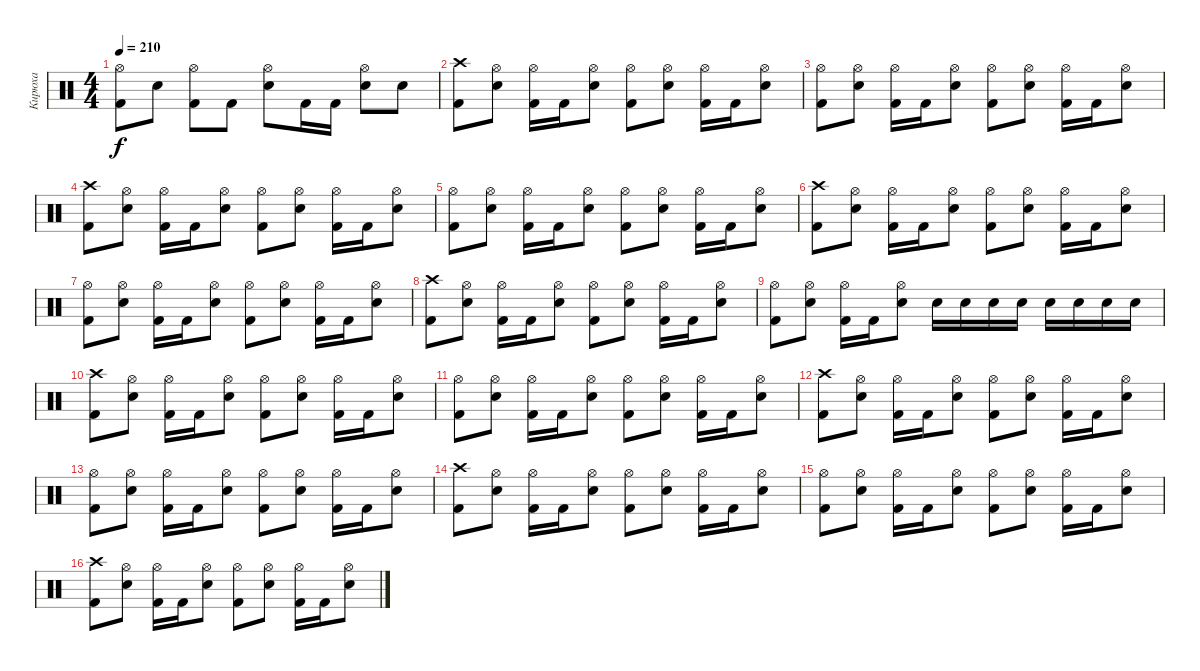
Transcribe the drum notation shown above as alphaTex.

\track ("Кирюха" "Кирюха") {instrument percussion}
\staff {score}
\articulation defaults
\ts (4 4)
\tempo 210
\clef neutral
\ks c
("Kick (hit) 2" "Hi-Hat (open)").8{dy f} "Electric Snare (hit)".8 ("Kick (hit) 2" "Hi-Hat (open)").8 "Kick (hit) 2".8 ("Electric Snare (hit)" "Hi-Hat (open)").8 "Kick (hit) 2".16 "Kick (hit) 2".16 ("Electric Snare (hit)" "Hi-Hat (open)").8 "Electric Snare (hit)".8 |
("Kick (hit) 2" "Crash high (hit)").8 ("Electric Snare (hit)" "Hi-Hat (open)").8 ("Kick (hit) 2" "Hi-Hat (open)").16 "Kick (hit) 2".16 ("Electric Snare (hit)" "Hi-Hat (open)").8 ("Kick (hit) 2" "Hi-Hat (open)").8 ("Electric Snare (hit)" "Hi-Hat (open)").8 ("Kick (hit) 2" "Hi-Hat (open)").16 "Kick (hit) 2".16 ("Electric Snare (hit)" "Hi-Hat (open)").8 |
("Kick (hit) 2" "Hi-Hat (open)").8 ("Electric Snare (hit)" "Hi-Hat (open)").8 ("Kick (hit) 2" "Hi-Hat (open)").16 "Kick (hit) 2".16 ("Electric Snare (hit)" "Hi-Hat (open)").8 ("Kick (hit) 2" "Hi-Hat (open)").8 ("Electric Snare (hit)" "Hi-Hat (open)").8 ("Kick (hit) 2" "Hi-Hat (open)").16 "Kick (hit) 2".16 ("Electric Snare (hit)" "Hi-Hat (open)").8 |
("Kick (hit) 2" "Crash high (hit)").8 ("Electric Snare (hit)" "Hi-Hat (open)").8 ("Kick (hit) 2" "Hi-Hat (open)").16 "Kick (hit) 2".16 ("Electric Snare (hit)" "Hi-Hat (open)").8 ("Kick (hit) 2" "Hi-Hat (open)").8 ("Electric Snare (hit)" "Hi-Hat (open)").8 ("Kick (hit) 2" "Hi-Hat (open)").16 "Kick (hit) 2".16 ("Electric Snare (hit)" "Hi-Hat (open)").8 |
("Kick (hit) 2" "Hi-Hat (open)").8 ("Electric Snare (hit)" "Hi-Hat (open)").8 ("Kick (hit) 2" "Hi-Hat (open)").16 "Kick (hit) 2".16 ("Electric Snare (hit)" "Hi-Hat (open)").8 ("Kick (hit) 2" "Hi-Hat (open)").8 ("Electric Snare (hit)" "Hi-Hat (open)").8 ("Kick (hit) 2" "Hi-Hat (open)").16 "Kick (hit) 2".16 ("Electric Snare (hit)" "Hi-Hat (open)").8 |
("Kick (hit) 2" "Crash high (hit)").8 ("Electric Snare (hit)" "Hi-Hat (open)").8 ("Kick (hit) 2" "Hi-Hat (open)").16 "Kick (hit) 2".16 ("Electric Snare (hit)" "Hi-Hat (open)").8 ("Kick (hit) 2" "Hi-Hat (open)").8 ("Electric Snare (hit)" "Hi-Hat (open)").8 ("Kick (hit) 2" "Hi-Hat (open)").16 "Kick (hit) 2".16 ("Electric Snare (hit)" "Hi-Hat (open)").8 |
("Kick (hit) 2" "Hi-Hat (open)").8 ("Electric Snare (hit)" "Hi-Hat (open)").8 ("Kick (hit) 2" "Hi-Hat (open)").16 "Kick (hit) 2".16 ("Electric Snare (hit)" "Hi-Hat (open)").8 ("Kick (hit) 2" "Hi-Hat (open)").8 ("Electric Snare (hit)" "Hi-Hat (open)").8 ("Kick (hit) 2" "Hi-Hat (open)").16 "Kick (hit) 2".16 ("Electric Snare (hit)" "Hi-Hat (open)").8 |
("Kick (hit) 2" "Crash high (hit)").8 ("Electric Snare (hit)" "Hi-Hat (open)").8 ("Kick (hit) 2" "Hi-Hat (open)").16 "Kick (hit) 2".16 ("Electric Snare (hit)" "Hi-Hat (open)").8 ("Kick (hit) 2" "Hi-Hat (open)").8 ("Electric Snare (hit)" "Hi-Hat (open)").8 ("Kick (hit) 2" "Hi-Hat (open)").16 "Kick (hit) 2".16 ("Electric Snare (hit)" "Hi-Hat (open)").8 |
("Kick (hit) 2" "Hi-Hat (open)").8 ("Electric Snare (hit)" "Hi-Hat (open)").8 ("Kick (hit) 2" "Hi-Hat (open)").16 "Kick (hit) 2".16 ("Electric Snare (hit)" "Hi-Hat (open)").8 "Electric Snare (hit)".16 "Electric Snare (hit)".16 "Electric Snare (hit)".16 "Electric Snare (hit)".16 "Electric Snare (hit)".16 "Electric Snare (hit)".16 "Electric Snare (hit)".16 "Electric Snare (hit)".16 |
("Kick (hit) 2" "Crash high (hit)").8 ("Electric Snare (hit)" "Hi-Hat (open)").8 ("Kick (hit) 2" "Hi-Hat (open)").16 "Kick (hit) 2".16 ("Electric Snare (hit)" "Hi-Hat (open)").8 ("Kick (hit) 2" "Hi-Hat (open)").8 ("Electric Snare (hit)" "Hi-Hat (open)").8 ("Kick (hit) 2" "Hi-Hat (open)").16 "Kick (hit) 2".16 ("Electric Snare (hit)" "Hi-Hat (open)").8 |
("Kick (hit) 2" "Hi-Hat (open)").8 ("Electric Snare (hit)" "Hi-Hat (open)").8 ("Kick (hit) 2" "Hi-Hat (open)").16 "Kick (hit) 2".16 ("Electric Snare (hit)" "Hi-Hat (open)").8 ("Kick (hit) 2" "Hi-Hat (open)").8 ("Electric Snare (hit)" "Hi-Hat (open)").8 ("Kick (hit) 2" "Hi-Hat (open)").16 "Kick (hit) 2".16 ("Electric Snare (hit)" "Hi-Hat (open)").8 |
("Kick (hit) 2" "Crash high (hit)").8 ("Electric Snare (hit)" "Hi-Hat (open)").8 ("Kick (hit) 2" "Hi-Hat (open)").16 "Kick (hit) 2".16 ("Electric Snare (hit)" "Hi-Hat (open)").8 ("Kick (hit) 2" "Hi-Hat (open)").8 ("Electric Snare (hit)" "Hi-Hat (open)").8 ("Kick (hit) 2" "Hi-Hat (open)").16 "Kick (hit) 2".16 ("Electric Snare (hit)" "Hi-Hat (open)").8 |
("Kick (hit) 2" "Hi-Hat (open)").8 ("Electric Snare (hit)" "Hi-Hat (open)").8 ("Kick (hit) 2" "Hi-Hat (open)").16 "Kick (hit) 2".16 ("Electric Snare (hit)" "Hi-Hat (open)").8 ("Kick (hit) 2" "Hi-Hat (open)").8 ("Electric Snare (hit)" "Hi-Hat (open)").8 ("Kick (hit) 2" "Hi-Hat (open)").16 "Kick (hit) 2".16 ("Electric Snare (hit)" "Hi-Hat (open)").8 |
("Kick (hit) 2" "Crash high (hit)").8 ("Electric Snare (hit)" "Hi-Hat (open)").8 ("Kick (hit) 2" "Hi-Hat (open)").16 "Kick (hit) 2".16 ("Electric Snare (hit)" "Hi-Hat (open)").8 ("Kick (hit) 2" "Hi-Hat (open)").8 ("Electric Snare (hit)" "Hi-Hat (open)").8 ("Kick (hit) 2" "Hi-Hat (open)").16 "Kick (hit) 2".16 ("Electric Snare (hit)" "Hi-Hat (open)").8 |
("Kick (hit) 2" "Hi-Hat (open)").8 ("Electric Snare (hit)" "Hi-Hat (open)").8 ("Kick (hit) 2" "Hi-Hat (open)").16 "Kick (hit) 2".16 ("Electric Snare (hit)" "Hi-Hat (open)").8 ("Kick (hit) 2" "Hi-Hat (open)").8 ("Electric Snare (hit)" "Hi-Hat (open)").8 ("Kick (hit) 2" "Hi-Hat (open)").16 "Kick (hit) 2".16 ("Electric Snare (hit)" "Hi-Hat (open)").8 |
("Kick (hit) 2" "Crash high (hit)").8 ("Electric Snare (hit)" "Hi-Hat (open)").8 ("Kick (hit) 2" "Hi-Hat (open)").16 "Kick (hit) 2".16 ("Electric Snare (hit)" "Hi-Hat (open)").8 ("Kick (hit) 2" "Hi-Hat (open)").8 ("Electric Snare (hit)" "Hi-Hat (open)").8 ("Kick (hit) 2" "Hi-Hat (open)").16 "Kick (hit) 2".16 ("Electric Snare (hit)" "Hi-Hat (open)").8
